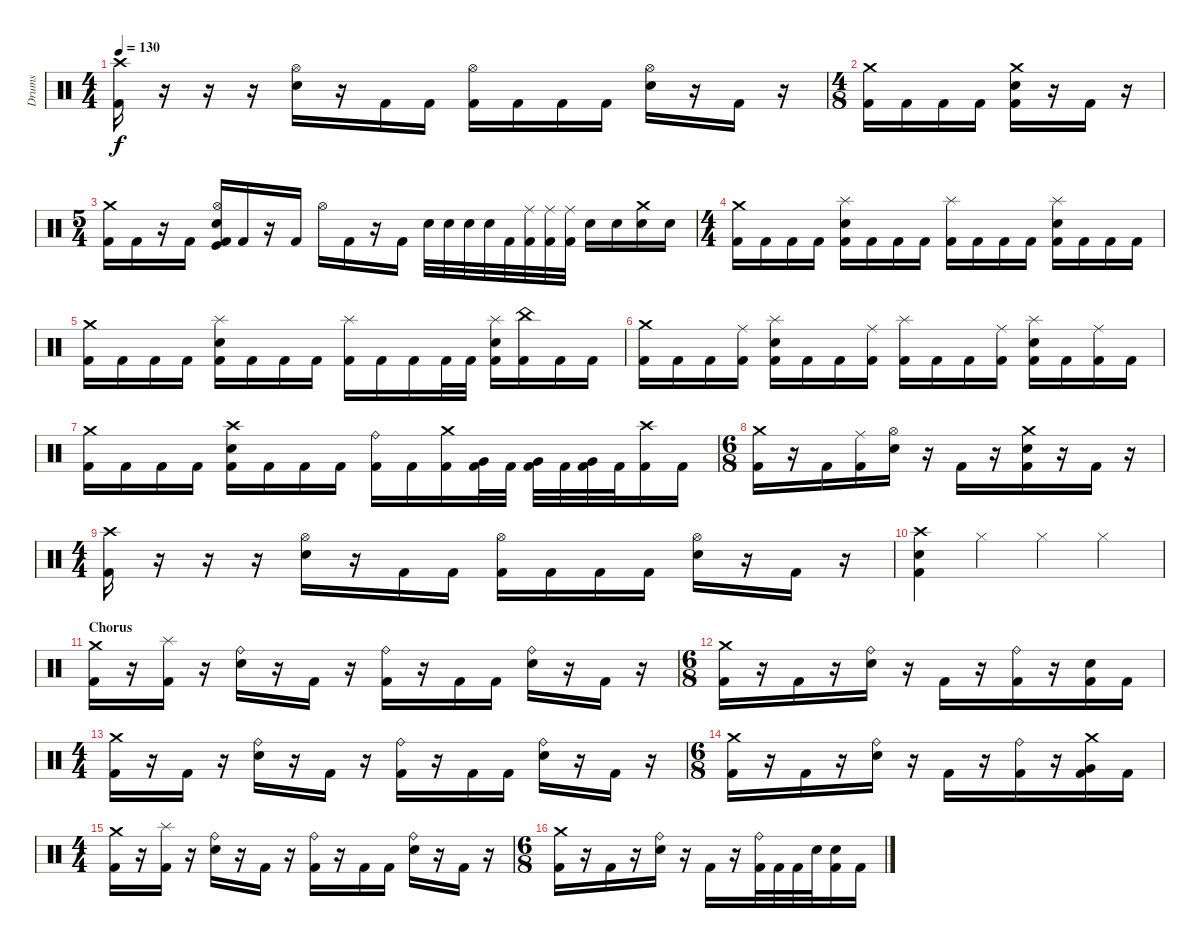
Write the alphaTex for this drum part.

\track ("Drums" "Drums") {instrument percussion}
\staff {score}
\articulation defaults
\ts (4 4)
\tempo 130
\clef neutral
\ks c
("Crash high (hit)" "Kick (hit) 2").16{dy f} r.16 r.16 r.16 ("Hi-Hat (open)" "Electric Snare (hit)").16 r.16 "Kick (hit) 2".16 "Kick (hit) 2".16 ("Hi-Hat (open)" "Kick (hit) 2").16 "Kick (hit) 2".16 "Kick (hit) 2".16 "Kick (hit) 2".16 ("Hi-Hat (open)" "Electric Snare (hit)").16 r.16 "Kick (hit) 2".16 r.16 |
\ts (4 8)
("Crash medium (hit)" "Kick (hit) 2").16 "Kick (hit) 2".16 "Kick (hit) 2".16 "Kick (hit) 2".16 ("Crash medium (hit)" "Electric Snare (hit)" "Kick (hit) 2").16 r.16 "Kick (hit) 2".16 r.16 |
\ts (5 4)
("Crash medium (hit)" "Kick (hit) 2").16 "Kick (hit) 2".16 r.16 "Kick (hit) 2".16 ("Hi-Hat (open)" "Electric Snare (hit)" "Kick (hit) 2" "Kick (hit)").16 "Kick (hit) 2".16 r.16 "Kick (hit) 2".16 "Hi-Hat (open)".16 "Kick (hit) 2".16 r.16 "Kick (hit) 2".16 "Electric Snare (hit)".32 "Electric Snare (hit)".32 "Electric Snare (hit)".32 "Electric Snare (hit)".32 "Kick (hit) 2".32 ("Ride (middle)" "Kick (hit) 2").32 ("Ride (middle)" "Kick (hit) 2").32 ("Ride (middle)" "Kick (hit) 2").32 "Electric Snare (hit)".16 "Electric Snare (hit)".16 ("Crash medium (hit)" "Electric Snare (hit)").16 "Electric Snare (hit)".16 |
\ts (4 4)
("Crash medium (hit)" "Kick (hit) 2").16 "Kick (hit) 2".16 "Kick (hit) 2".16 "Kick (hit) 2".16 ("Splash (hit)" "Electric Snare (hit)" "Kick (hit) 2").16 "Kick (hit) 2".16 "Kick (hit) 2".16 "Kick (hit) 2".16 ("Splash (hit)" "Kick (hit) 2").16 "Kick (hit) 2".16 "Kick (hit) 2".16 "Kick (hit) 2".16 ("Splash (hit)" "Electric Snare (hit)" "Kick (hit) 2").16 "Kick (hit) 2".16 "Kick (hit) 2".16 "Kick (hit) 2".16 |
("Crash medium (hit)" "Kick (hit) 2").16 "Kick (hit) 2".16 "Kick (hit) 2".16 "Kick (hit) 2".16 ("Splash (hit)" "Electric Snare (hit)" "Kick (hit) 2").16 "Kick (hit) 2".16 "Kick (hit) 2".16 "Kick (hit) 2".16 ("Splash (hit)" "Kick (hit) 2").16 "Kick (hit) 2".16 "Kick (hit) 2".16 "Kick (hit) 2".32 "Kick (hit) 2".32 ("Splash (hit)" "Electric Snare (hit)" "Kick (hit) 2").16 ("China (hit)" "Kick (hit) 2").16 "Kick (hit) 2".16 "Kick (hit) 2".16 |
("Crash medium (hit)" "Kick (hit) 2").16 "Kick (hit) 2".16 "Kick (hit) 2".16 ("Ride (middle)" "Kick (hit) 2").16 ("Splash (hit)" "Electric Snare (hit)" "Kick (hit) 2").16 "Kick (hit) 2".16 "Kick (hit) 2".16 ("Ride (middle)" "Kick (hit) 2").16 ("Splash (hit)" "Kick (hit) 2").16 "Kick (hit) 2".16 "Kick (hit) 2".16 ("Ride (middle)" "Kick (hit) 2").16 ("Splash (hit)" "Electric Snare (hit)" "Kick (hit) 2").16 "Kick (hit) 2".16 ("Ride (middle)" "Kick (hit) 2").16 "Kick (hit) 2".16 |
("Crash medium (hit)" "Kick (hit) 2").16 "Kick (hit) 2".16 "Kick (hit) 2".16 "Kick (hit) 2".16 ("Crash high (hit)" "Electric Snare (hit)" "Kick (hit) 2").16 "Kick (hit) 2".16 "Kick (hit) 2".16 "Kick (hit) 2".16 ("Ride (bell)" "Kick (hit) 2").16 "Kick (hit) 2".16 ("Crash medium (hit)" "Kick (hit) 2").16 ("Very Low Tom (hit)" "Kick (hit) 2").32 "Kick (hit) 2".32 ("Very Low Tom (hit)" "Kick (hit) 2").32 "Kick (hit) 2".32 ("Very Low Tom (hit)" "Kick (hit) 2").32 "Kick (hit) 2".32 ("Crash high (hit)" "Kick (hit) 2").16 "Kick (hit) 2".16 |
\ts (6 8)
("Crash medium (hit)" "Kick (hit) 2").16 r.16 "Kick (hit) 2".16 ("Ride (middle)" "Kick (hit) 2").16 ("Hi-Hat (open)" "Electric Snare (hit)").16 r.16 "Kick (hit) 2".16 r.16 ("Crash medium (hit)" "Electric Snare (hit)" "Kick (hit) 2").16 r.16 "Kick (hit) 2".16 r.16 |
\ts (4 4)
("Crash high (hit)" "Kick (hit) 2").16 r.16 r.16 r.16 ("Hi-Hat (open)" "Electric Snare (hit)").16 r.16 "Kick (hit) 2".16 "Kick (hit) 2".16 ("Hi-Hat (open)" "Kick (hit) 2").16 "Kick (hit) 2".16 "Kick (hit) 2".16 "Kick (hit) 2".16 ("Hi-Hat (open)" "Electric Snare (hit)").16 r.16 "Kick (hit) 2".16 r.16 |
("Crash high (hit)" "Electric Snare (hit)" "Kick (hit) 2").4 "Hi-Hat (closed)".4 "Hi-Hat (closed)".4 "Hi-Hat (closed)".4 |
\section ("" "Chorus")
("Crash medium (hit)" "Kick (hit) 2").16 r.16 ("Splash (hit)" "Kick (hit) 2").16 r.16 ("Ride (bell)" "Electric Snare (hit)").16 r.16 "Kick (hit) 2".16 r.16 ("Ride (bell)" "Kick (hit) 2").16 r.16 "Kick (hit) 2".16 "Kick (hit) 2".16 ("Ride (bell)" "Electric Snare (hit)").16 r.16 "Kick (hit) 2".16 r.16 |
\ts (6 8)
("Crash medium (hit)" "Kick (hit) 2").16 r.16 "Kick (hit) 2".16 r.16 ("Ride (bell)" "Electric Snare (hit)").16 r.16 "Kick (hit) 2".16 r.16 ("Ride (bell)" "Kick (hit) 2").16 r.16 ("Electric Snare (hit)" "Kick (hit) 2").16 "Kick (hit) 2".16 |
\ts (4 4)
("Crash medium (hit)" "Kick (hit) 2").16 r.16 "Kick (hit) 2".16 r.16 ("Ride (bell)" "Electric Snare (hit)").16 r.16 "Kick (hit) 2".16 r.16 ("Ride (bell)" "Kick (hit) 2").16 r.16 "Kick (hit) 2".16 "Kick (hit) 2".16 ("Ride (bell)" "Electric Snare (hit)").16 r.16 "Kick (hit) 2".16 r.16 |
\ts (6 8)
("Crash medium (hit)" "Kick (hit) 2").16 r.16 "Kick (hit) 2".16 r.16 ("Ride (bell)" "Electric Snare (hit)").16 r.16 "Kick (hit) 2".16 r.16 ("Ride (bell)" "Kick (hit) 2").16 r.16 ("Crash medium (hit)" "Very Low Tom (hit)" "Kick (hit) 2").16 "Kick (hit) 2".16 |
\ts (4 4)
("Crash medium (hit)" "Kick (hit) 2").16 r.16 ("Splash (hit)" "Kick (hit) 2").16 r.16 ("Ride (bell)" "Electric Snare (hit)").16 r.16 "Kick (hit) 2".16 r.16 ("Ride (bell)" "Kick (hit) 2").16 r.16 "Kick (hit) 2".16 "Kick (hit) 2".16 ("Ride (bell)" "Electric Snare (hit)").16 r.16 "Kick (hit) 2".16 r.16 |
\ts (6 8)
("Crash medium (hit)" "Kick (hit) 2").16 r.16 "Kick (hit) 2".16 r.16 ("Ride (bell)" "Electric Snare (hit)").16 r.16 "Kick (hit) 2".16 r.16 ("Ride (bell)" "Kick (hit) 2").32 "Kick (hit) 2".32 "Kick (hit) 2".32 "Electric Snare (hit)".32 ("Electric Snare (hit)" "Kick (hit) 2").16 "Kick (hit) 2".16
